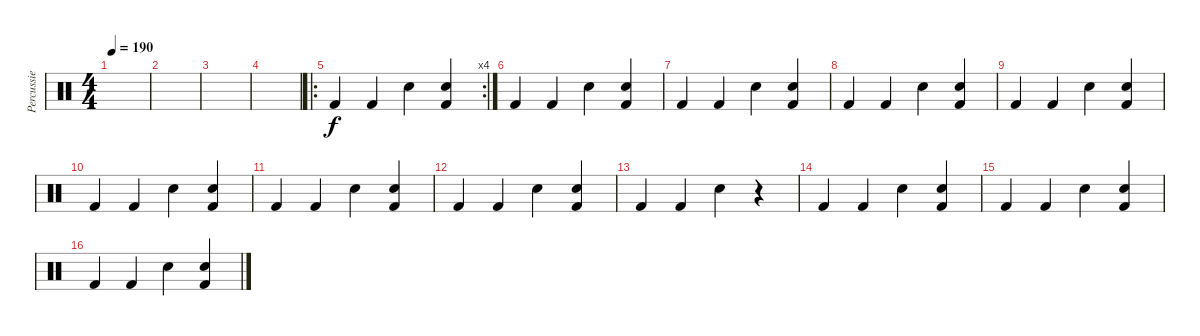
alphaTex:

\track ("Percussie" "Percussie") {instrument percussion}
\staff {score}
\articulation defaults
\ts (4 4)
\tempo 190
\clef neutral
\ks c
|
|
|
|
\ro
\rc 4 "Kick (hit) 2".4 "Kick (hit) 2".4 "Snare (hit) 2".4
("Snare (hit) 2" "Kick (hit) 2").4 |
"Kick (hit) 2".4 "Kick (hit) 2".4 "Snare (hit) 2".4 ("Snare (hit) 2" "Kick (hit) 2").4 |
"Kick (hit) 2".4 "Kick (hit) 2".4 "Snare (hit) 2".4 ("Snare (hit) 2" "Kick (hit) 2").4 |
"Kick (hit) 2".4 "Kick (hit) 2".4 "Snare (hit) 2".4 ("Snare (hit) 2" "Kick (hit) 2").4 |
"Kick (hit) 2".4 "Kick (hit) 2".4 "Snare (hit) 2".4 ("Snare (hit) 2" "Kick (hit) 2").4 |
"Kick (hit) 2".4 "Kick (hit) 2".4 "Snare (hit) 2".4 ("Snare (hit) 2" "Kick (hit) 2").4 |
"Kick (hit) 2".4 "Kick (hit) 2".4 "Snare (hit) 2".4 ("Snare (hit) 2" "Kick (hit) 2").4 |
"Kick (hit) 2".4 "Kick (hit) 2".4 "Snare (hit) 2".4 ("Snare (hit) 2" "Kick (hit) 2").4 |
"Kick (hit) 2".4 "Kick (hit) 2".4 "Snare (hit) 2".4 r.4 |
"Kick (hit) 2".4 "Kick (hit) 2".4 "Snare (hit) 2".4 ("Snare (hit) 2" "Kick (hit) 2").4 |
"Kick (hit) 2".4 "Kick (hit) 2".4 "Snare (hit) 2".4 ("Snare (hit) 2" "Kick (hit) 2").4 |
"Kick (hit) 2".4 "Kick (hit) 2".4 "Snare (hit) 2".4 ("Snare (hit) 2" "Kick (hit) 2").4
